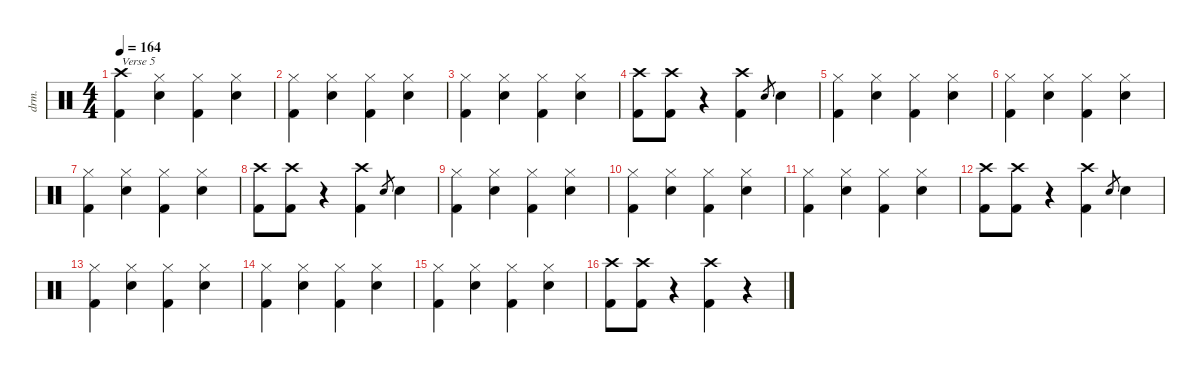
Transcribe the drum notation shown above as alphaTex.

\defaultSystemsLayout 4
\hideDynamics
\bracketExtendMode nobrackets
\track ("Drums" "drm.") {instrument percussion}
\staff {score}
\articulation defaults
\ts (4 4)
\tempo 164
\clef neutral
\ks c
("Crash high (hit)" "Kick (hit) 2").4{txt "Verse 5" dy fff} ("Hi-Hat (closed)" "Snare (hit) 2").4{dy f} ("Hi-Hat (closed)" "Kick (hit) 2").4 ("Hi-Hat (closed)" "Snare (hit) 2").4 |
("Hi-Hat (closed)" "Kick (hit) 2").4 ("Hi-Hat (closed)" "Snare (hit) 2").4 ("Hi-Hat (closed)" "Kick (hit) 2").4 ("Hi-Hat (closed)" "Snare (hit) 2").4 |
("Hi-Hat (closed)" "Kick (hit) 2").4 ("Hi-Hat (closed)" "Snare (hit) 2").4 ("Hi-Hat (closed)" "Kick (hit) 2").4 ("Hi-Hat (closed)" "Snare (hit) 2").4 |
("Crash high (hit)" "Kick (hit) 2").8{dy fff} ("Crash high (hit)" "Kick (hit) 2").8 r.4 ("Crash high (hit)" "Kick (hit) 2").4 "Snare (hit) 2".8{gr dy mf} "Snare (hit) 2".4{dy f} |
("Hi-Hat (closed)" "Kick (hit) 2").4 ("Hi-Hat (closed)" "Snare (hit) 2").4 ("Hi-Hat (closed)" "Kick (hit) 2").4 ("Hi-Hat (closed)" "Snare (hit) 2").4 |
("Hi-Hat (closed)" "Kick (hit) 2").4 ("Hi-Hat (closed)" "Snare (hit) 2").4 ("Hi-Hat (closed)" "Kick (hit) 2").4 ("Hi-Hat (closed)" "Snare (hit) 2").4 |
("Hi-Hat (closed)" "Kick (hit) 2").4 ("Hi-Hat (closed)" "Snare (hit) 2").4 ("Hi-Hat (closed)" "Kick (hit) 2").4 ("Hi-Hat (closed)" "Snare (hit) 2").4 |
("Crash high (hit)" "Kick (hit) 2").8{dy fff} ("Crash high (hit)" "Kick (hit) 2").8 r.4 ("Crash high (hit)" "Kick (hit) 2").4 "Snare (hit) 2".8{gr dy mf} "Snare (hit) 2".4{dy f} |
("Hi-Hat (closed)" "Kick (hit) 2").4 ("Hi-Hat (closed)" "Snare (hit) 2").4 ("Hi-Hat (closed)" "Kick (hit) 2").4 ("Hi-Hat (closed)" "Snare (hit) 2").4 |
("Hi-Hat (closed)" "Kick (hit) 2").4 ("Hi-Hat (closed)" "Snare (hit) 2").4 ("Hi-Hat (closed)" "Kick (hit) 2").4 ("Hi-Hat (closed)" "Snare (hit) 2").4 |
("Hi-Hat (closed)" "Kick (hit) 2").4 ("Hi-Hat (closed)" "Snare (hit) 2").4 ("Hi-Hat (closed)" "Kick (hit) 2").4 ("Hi-Hat (closed)" "Snare (hit) 2").4 |
("Crash high (hit)" "Kick (hit) 2").8{dy fff} ("Crash high (hit)" "Kick (hit) 2").8 r.4 ("Crash high (hit)" "Kick (hit) 2").4 "Snare (hit) 2".8{gr dy mf} "Snare (hit) 2".4{dy f} |
("Hi-Hat (closed)" "Kick (hit) 2").4 ("Hi-Hat (closed)" "Snare (hit) 2").4 ("Hi-Hat (closed)" "Kick (hit) 2").4 ("Hi-Hat (closed)" "Snare (hit) 2").4 |
("Hi-Hat (closed)" "Kick (hit) 2").4 ("Hi-Hat (closed)" "Snare (hit) 2").4 ("Hi-Hat (closed)" "Kick (hit) 2").4 ("Hi-Hat (closed)" "Snare (hit) 2").4 |
("Hi-Hat (closed)" "Kick (hit) 2").4 ("Hi-Hat (closed)" "Snare (hit) 2").4 ("Hi-Hat (closed)" "Kick (hit) 2").4 ("Hi-Hat (closed)" "Snare (hit) 2").4 |
("Crash high (hit)" "Kick (hit) 2").8{dy fff} ("Crash high (hit)" "Kick (hit) 2").8 r.4 ("Crash high (hit)" "Kick (hit) 2").4 r.4
